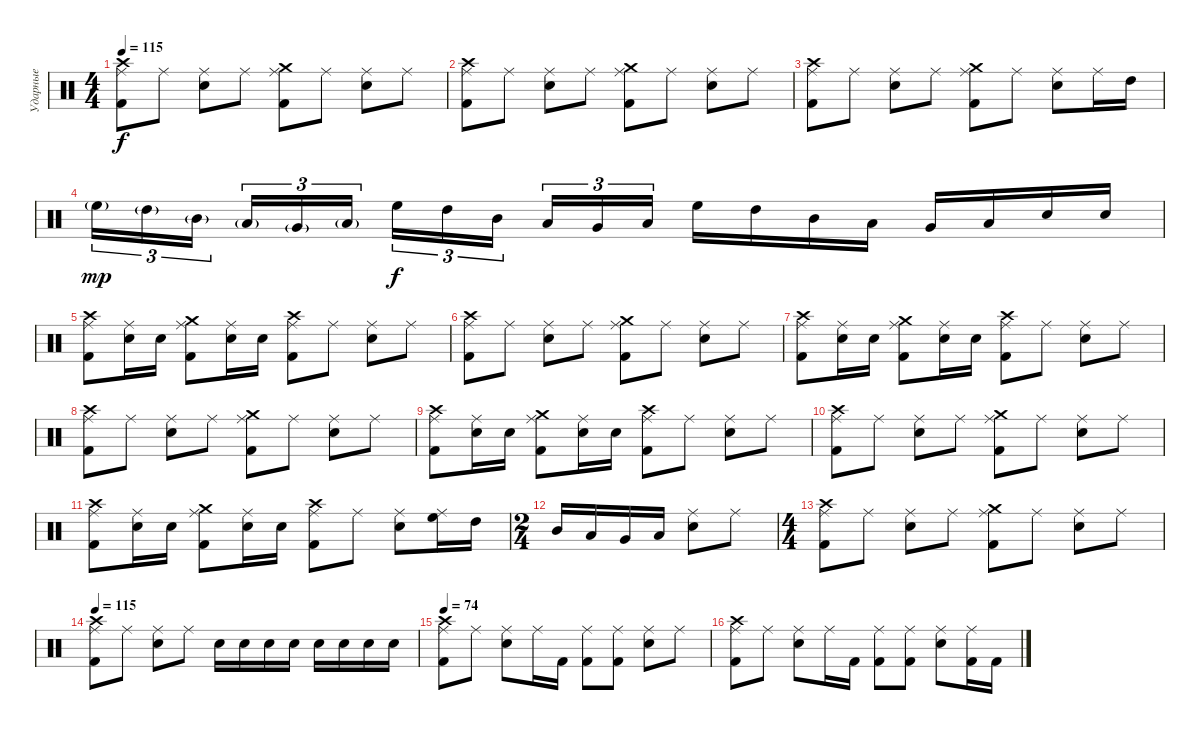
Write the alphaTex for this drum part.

\track ("Ударные" "Ударные") {instrument percussion}
\staff {score}
\articulation defaults
\ts (4 4)
\tempo 115
\clef neutral
\ks c
("Kick (hit) 2" "Crash high (hit)" "Ride (middle)").8{dy f} "Ride (middle)".8 ("Electric Snare (hit)" "Ride (middle)").8 "Ride (middle)".8 ("Kick (hit) 2" "Crash medium (hit)" "Ride (middle)").8 "Ride (middle)".8 ("Electric Snare (hit)" "Ride (middle)").8 "Ride (middle)".8 |
("Kick (hit) 2" "Crash high (hit)" "Ride (middle)").8 "Ride (middle)".8 ("Electric Snare (hit)" "Ride (middle)").8 "Ride (middle)".8 ("Kick (hit) 2" "Crash medium (hit)" "Ride (middle)").8 "Ride (middle)".8 ("Electric Snare (hit)" "Ride (middle)").8 "Ride (middle)".8 |
("Kick (hit) 2" "Crash high (hit)" "Ride (middle)").8 "Ride (middle)".8 ("Electric Snare (hit)" "Ride (middle)").8 "Ride (middle)".8 ("Kick (hit) 2" "Crash medium (hit)" "Ride (middle)").8 "Ride (middle)".8 ("Electric Snare (hit)" "Ride (middle)").8 "Ride (middle)".16 "High Tom (hit)".16 |
"High Floor Tom (hit)"{g}.16{tu (3 2) dy mp} "High Tom (hit)"{g}.16{tu (3 2)} "Mid Tom (hit)"{g}.16{tu (3 2)} "Low Tom (hit)"{g}.16{tu (3 2)} "Very Low Tom (hit)"{g}.16{tu (3 2)} "Low Floor Tom (hit)"{g}.16{tu (3 2)} "High Floor Tom (hit)".16{tu (3 2) dy f} "High Tom (hit)".16{tu (3 2)} "Mid Tom (hit)".16{tu (3 2)} "Low Tom (hit)".16{tu (3 2)} "Very Low Tom (hit)".16{tu (3 2)} "Low Floor Tom (hit)".16{tu (3 2)} "High Floor Tom (hit)".16 "High Tom (hit)".16 "Mid Tom (hit)".16 "Low Tom (hit)".16 "Very Low Tom (hit)".16 "Low Floor Tom (hit)".16 "Electric Snare (hit)".16 "Electric Snare (hit)".16 |
("Kick (hit) 2" "Crash high (hit)" "Ride (middle)").8 ("Electric Snare (hit)" "Ride (middle)").16 "Electric Snare (hit)".16 ("Kick (hit) 2" "Crash medium (hit)" "Ride (middle)").8 ("Electric Snare (hit)" "Ride (middle)").16 "Electric Snare (hit)".16 ("Kick (hit) 2" "Crash high (hit)" "Ride (middle)").8 "Ride (middle)".8 ("Electric Snare (hit)" "Ride (middle)").8 "Ride (middle)".8 |
("Kick (hit) 2" "Crash high (hit)" "Ride (middle)").8 "Ride (middle)".8 ("Electric Snare (hit)" "Ride (middle)").8 "Ride (middle)".8 ("Kick (hit) 2" "Crash medium (hit)" "Ride (middle)").8 "Ride (middle)".8 ("Electric Snare (hit)" "Ride (middle)").8 "Ride (middle)".8 |
("Kick (hit) 2" "Crash high (hit)" "Ride (middle)").8 ("Electric Snare (hit)" "Ride (middle)").16 "Electric Snare (hit)".16 ("Kick (hit) 2" "Crash medium (hit)" "Ride (middle)").8 ("Electric Snare (hit)" "Ride (middle)").16 "Electric Snare (hit)".16 ("Kick (hit) 2" "Crash high (hit)" "Ride (middle)").8 "Ride (middle)".8 ("Electric Snare (hit)" "Ride (middle)").8 "Ride (middle)".8 |
("Kick (hit) 2" "Crash high (hit)" "Ride (middle)").8 "Ride (middle)".8 ("Electric Snare (hit)" "Ride (middle)").8 "Ride (middle)".8 ("Kick (hit) 2" "Crash medium (hit)" "Ride (middle)").8 "Ride (middle)".8 ("Electric Snare (hit)" "Ride (middle)").8 "Ride (middle)".8 |
("Kick (hit) 2" "Crash high (hit)" "Ride (middle)").8 ("Electric Snare (hit)" "Ride (middle)").16 "Electric Snare (hit)".16 ("Kick (hit) 2" "Crash medium (hit)" "Ride (middle)").8 ("Electric Snare (hit)" "Ride (middle)").16 "Electric Snare (hit)".16 ("Kick (hit) 2" "Crash high (hit)" "Ride (middle)").8 "Ride (middle)".8 ("Electric Snare (hit)" "Ride (middle)").8 "Ride (middle)".8 |
("Kick (hit) 2" "Crash high (hit)" "Ride (middle)").8 "Ride (middle)".8 ("Electric Snare (hit)" "Ride (middle)").8 "Ride (middle)".8 ("Kick (hit) 2" "Crash medium (hit)" "Ride (middle)").8 "Ride (middle)".8 ("Electric Snare (hit)" "Ride (middle)").8 "Ride (middle)".8 |
("Kick (hit) 2" "Crash high (hit)" "Ride (middle)").8 ("Electric Snare (hit)" "Ride (middle)").16 "Electric Snare (hit)".16 ("Kick (hit) 2" "Crash medium (hit)" "Ride (middle)").8 ("Electric Snare (hit)" "Ride (middle)").16 "Electric Snare (hit)".16 ("Kick (hit) 2" "Crash high (hit)" "Ride (middle)").8 "Ride (middle)".8 ("Electric Snare (hit)" "Ride (middle)").8 ("High Floor Tom (hit)" "Ride (middle)").16 "High Tom (hit)".16 |
\ts (2 4)
"Mid Tom (hit)".16 "Low Tom (hit)".16 "Very Low Tom (hit)".16 "Low Floor Tom (hit)".16 ("Electric Snare (hit)" "Ride (middle)").8 "Ride (middle)".8 |
\ts (4 4)
("Kick (hit) 2" "Crash high (hit)" "Ride (middle)").8 "Ride (middle)".8 ("Electric Snare (hit)" "Ride (middle)").8 "Ride (middle)".8 ("Kick (hit) 2" "Crash medium (hit)" "Ride (middle)").8 "Ride (middle)".8 ("Electric Snare (hit)" "Ride (middle)").8 "Ride (middle)".8 |
\tempo 115
("Kick (hit) 2" "Crash high (hit)" "Ride (middle)").8 "Ride (middle)".8 ("Electric Snare (hit)" "Ride (middle)").8 "Ride (middle)".8 "Electric Snare (hit)".16 "Electric Snare (hit)".16 "Electric Snare (hit)".16 "Electric Snare (hit)".16 "Electric Snare (hit)".16 "Electric Snare (hit)".16 "Electric Snare (hit)".16 "Electric Snare (hit)".16 |
\tempo 74
("Kick (hit) 2" "Crash high (hit)" "Ride (middle)").8 "Ride (middle)".8 ("Electric Snare (hit)" "Ride (middle)").8 "Ride (middle)".16 "Kick (hit) 2".16 ("Kick (hit) 2" "Ride (middle)").8 ("Kick (hit) 2" "Ride (middle)").8 ("Electric Snare (hit)" "Ride (middle)").8 "Ride (middle)".8 |
("Kick (hit) 2" "Crash high (hit)" "Ride (middle)").8 "Ride (middle)".8 ("Electric Snare (hit)" "Ride (middle)").8 "Ride (middle)".16 "Kick (hit) 2".16 ("Kick (hit) 2" "Ride (middle)").8 ("Kick (hit) 2" "Ride (middle)").8 ("Electric Snare (hit)" "Ride (middle)").8 ("Kick (hit) 2" "Ride (middle)").16 "Kick (hit) 2".16
